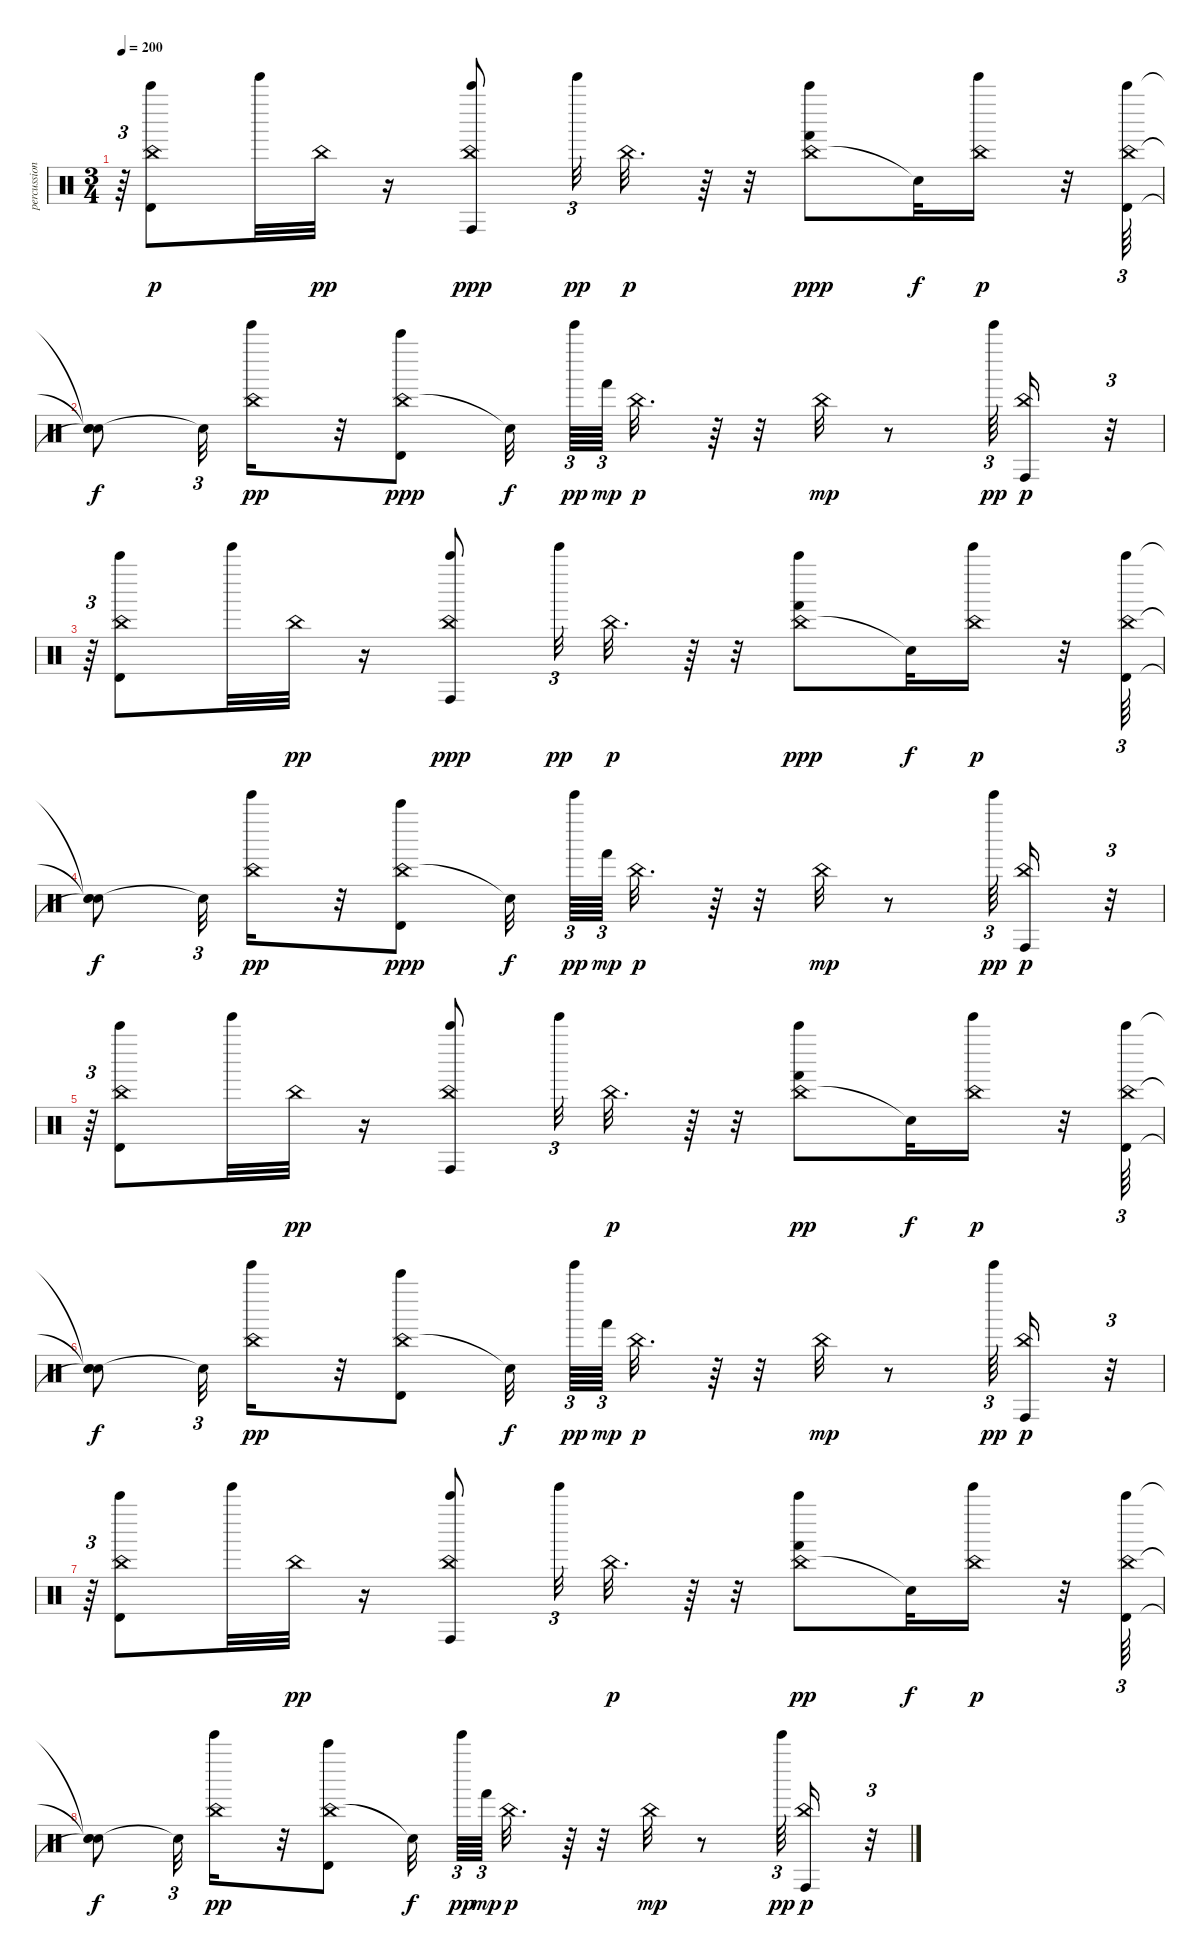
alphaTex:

\track ("percussion" "percussion") {instrument percussion}
\staff {score}
\articulation defaults
\ts (3 4)
\tempo 200
\clef neutral
\ks c
r.64{tu (3 2) dy p} ("China (hit)" "Timbale high (hit)" "Bell Tree (hit)").8 "Tinkle Bell (hit)".32 "China (hit)".32{dy pp} r.16 ("China (hit)" "Conga high (hit)" "Bell Tree (hit)").8{dy ppp} "Tinkle Bell (hit)".32{tu (3 2) dy pp} "China (hit)".32{d dy p} r.64 r.32 ("China (hit)" "Hand (hit)" "Bell Tree (hit)").8{dy ppp} "Snare (hit)"{t}.32{dy f} ("Tinkle Bell (hit)" "China (hit)").16{dy p} r.32 ("China (hit)" "Timbale high (hit)" "Bell Tree (hit)").64{tu (3 2)} |
("Snare (hit)"{t} "Snare (hit)"{t} "Snare (hit)"{t}).8{dy f} "Snare (hit)"{t}.32{tu (3 2)} ("Tinkle Bell (hit)" "China (hit)").16{dy pp} r.32 ("China (hit)" "Timbale high (hit)" "Bell Tree (hit)").8{dy ppp} "Snare (hit)"{t}.32{dy f} "Tinkle Bell (hit)".64{tu (3 2) dy pp} "Hand (hit)".64{tu (3 2) dy mp} "China (hit)".32{d dy p} r.64 r.32 "China (hit)".32{dy mp} r.8 "Tinkle Bell (hit)".64{tu (3 2) dy pp} ("Conga high (hit)" "China (hit)").16{dy p} r.32{tu (3 2)} |
r.64{tu (3 2)} ("China (hit)" "Timbale high (hit)" "Bell Tree (hit)").8 "Tinkle Bell (hit)".32 "China (hit)".32{dy pp} r.16 ("China (hit)" "Conga high (hit)" "Bell Tree (hit)").8{dy ppp} "Tinkle Bell (hit)".32{tu (3 2) dy pp} "China (hit)".32{d dy p} r.64 r.32 ("China (hit)" "Hand (hit)" "Bell Tree (hit)").8{dy ppp} "Snare (hit)"{t}.32{dy f} ("Tinkle Bell (hit)" "China (hit)").16{dy p} r.32 ("China (hit)" "Timbale high (hit)" "Bell Tree (hit)").64{tu (3 2)} |
("Snare (hit)"{t} "Snare (hit)"{t} "Snare (hit)"{t}).8{dy f} "Snare (hit)"{t}.32{tu (3 2)} ("Tinkle Bell (hit)" "China (hit)").16{dy pp} r.32 ("China (hit)" "Timbale high (hit)" "Bell Tree (hit)").8{dy ppp} "Snare (hit)"{t}.32{dy f} "Tinkle Bell (hit)".64{tu (3 2) dy pp} "Hand (hit)".64{tu (3 2) dy mp} "China (hit)".32{d dy p} r.64 r.32 "China (hit)".32{dy mp} r.8 "Tinkle Bell (hit)".64{tu (3 2) dy pp} ("Conga high (hit)" "China (hit)").16{dy p} r.32{tu (3 2)} |
r.64{tu (3 2)} ("China (hit)" "Timbale high (hit)" "Bell Tree (hit)").8 "Tinkle Bell (hit)".32 "China (hit)".32{dy pp} r.16 ("China (hit)" "Conga high (hit)" "Bell Tree (hit)").8 "Tinkle Bell (hit)".32{tu (3 2)} "China (hit)".32{d dy p} r.64 r.32 ("China (hit)" "Hand (hit)" "Bell Tree (hit)").8{dy pp} "Snare (hit)"{t}.32{dy f} ("Tinkle Bell (hit)" "China (hit)").16{dy p} r.32 ("China (hit)" "Timbale high (hit)" "Bell Tree (hit)").64{tu (3 2)} |
("Snare (hit)"{t} "Snare (hit)"{t} "Snare (hit)"{t}).8{dy f} "Snare (hit)"{t}.32{tu (3 2)} ("Tinkle Bell (hit)" "China (hit)").16{dy pp} r.32 ("China (hit)" "Timbale high (hit)" "Bell Tree (hit)").8 "Snare (hit)"{t}.32{dy f} "Tinkle Bell (hit)".64{tu (3 2) dy pp} "Hand (hit)".64{tu (3 2) dy mp} "China (hit)".32{d dy p} r.64 r.32 "China (hit)".32{dy mp} r.8 "Tinkle Bell (hit)".64{tu (3 2) dy pp} ("Conga high (hit)" "China (hit)").16{dy p} r.32{tu (3 2)} |
r.64{tu (3 2)} ("China (hit)" "Timbale high (hit)" "Bell Tree (hit)").8 "Tinkle Bell (hit)".32 "China (hit)".32{dy pp} r.16 ("China (hit)" "Conga high (hit)" "Bell Tree (hit)").8 "Tinkle Bell (hit)".32{tu (3 2)} "China (hit)".32{d dy p} r.64 r.32 ("China (hit)" "Hand (hit)" "Bell Tree (hit)").8{dy pp} "Snare (hit)"{t}.32{dy f} ("Tinkle Bell (hit)" "China (hit)").16{dy p} r.32 ("China (hit)" "Timbale high (hit)" "Bell Tree (hit)").64{tu (3 2)} |
("Snare (hit)"{t} "Snare (hit)"{t} "Snare (hit)"{t}).8{dy f} "Snare (hit)"{t}.32{tu (3 2)} ("Tinkle Bell (hit)" "China (hit)").16{dy pp} r.32 ("China (hit)" "Timbale high (hit)" "Bell Tree (hit)").8 "Snare (hit)"{t}.32{dy f} "Tinkle Bell (hit)".64{tu (3 2) dy pp} "Hand (hit)".64{tu (3 2) dy mp} "China (hit)".32{d dy p} r.64 r.32 "China (hit)".32{dy mp} r.8 "Tinkle Bell (hit)".64{tu (3 2) dy pp} ("Conga high (hit)" "China (hit)").16{dy p} r.32{tu (3 2)}
